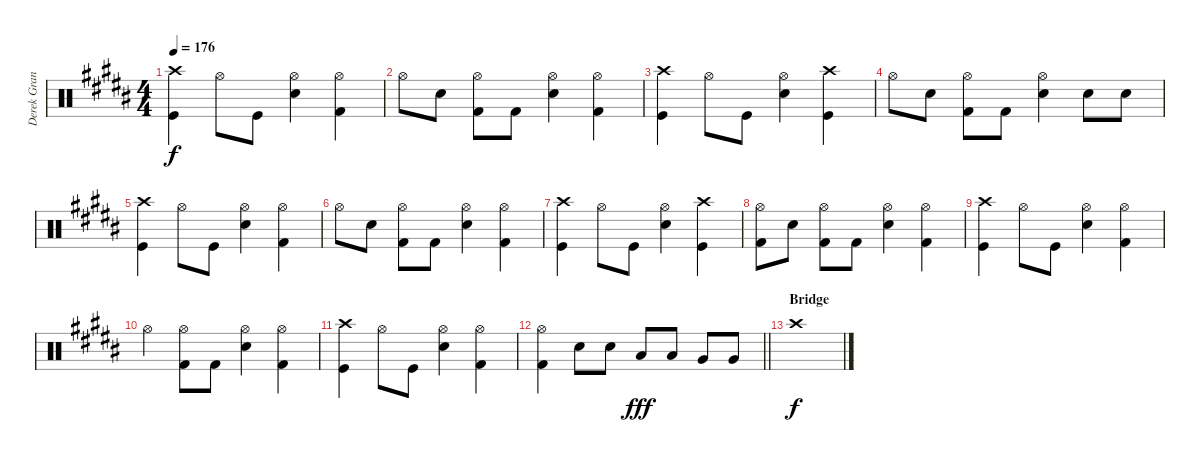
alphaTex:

\track ("Derek Grant - Drums" "Derek Gran") {instrument percussion}
\staff {score}
\articulation defaults
\ts (4 4)
\tempo 176
\clef neutral
\ks b
("Kick (hit)" "Crash high (hit)").4{dy f} "Hi-Hat (open)".8 "Kick (hit)".8 ("Snare (hit) 2" "Hi-Hat (open)").4 ("Kick (hit) 2" "Hi-Hat (open)").4 |
"Hi-Hat (open)".8 "Snare (hit) 2".8 ("Kick (hit) 2" "Hi-Hat (open)").8 "Kick (hit) 2".8 ("Snare (hit) 2" "Hi-Hat (open)").4 ("Kick (hit) 2" "Hi-Hat (open)").4 |
("Kick (hit)" "Crash high (hit)").4 "Hi-Hat (open)".8 "Kick (hit)".8 ("Snare (hit) 2" "Hi-Hat (open)").4 ("Kick (hit)" "Crash high (hit)").4 |
"Hi-Hat (open)".8 "Snare (hit) 2".8 ("Kick (hit) 2" "Hi-Hat (open)").8 "Kick (hit) 2".8 ("Snare (hit) 2" "Hi-Hat (open)").4 "Snare (hit) 2".8 "Snare (hit) 2".8 |
("Kick (hit)" "Crash high (hit)").4 "Hi-Hat (open)".8 "Kick (hit)".8 ("Snare (hit) 2" "Hi-Hat (open)").4 ("Kick (hit) 2" "Hi-Hat (open)").4 |
"Hi-Hat (open)".8 "Snare (hit) 2".8 ("Kick (hit) 2" "Hi-Hat (open)").8 "Kick (hit) 2".8 ("Snare (hit) 2" "Hi-Hat (open)").4 ("Kick (hit) 2" "Hi-Hat (open)").4 |
("Kick (hit)" "Crash high (hit)").4 "Hi-Hat (open)".8 "Kick (hit)".8 ("Snare (hit) 2" "Hi-Hat (open)").4 ("Kick (hit)" "Crash high (hit)").4 |
("Kick (hit) 2" "Hi-Hat (open)").8 "Snare (hit) 2".8 ("Kick (hit) 2" "Hi-Hat (open)").8 "Kick (hit) 2".8 ("Snare (hit) 2" "Hi-Hat (open)").4 ("Kick (hit) 2" "Hi-Hat (open)").4 |
("Kick (hit)" "Crash high (hit)").4 "Hi-Hat (open)".8 "Kick (hit)".8 ("Snare (hit) 2" "Hi-Hat (open)").4 ("Kick (hit) 2" "Hi-Hat (open)").4 |
"Hi-Hat (open)".4 ("Kick (hit) 2" "Hi-Hat (open)").8 "Kick (hit) 2".8 ("Snare (hit) 2" "Hi-Hat (open)").4 ("Kick (hit) 2" "Hi-Hat (open)").4 |
("Kick (hit)" "Crash high (hit)").4 "Hi-Hat (open)".8 "Kick (hit)".8 ("Snare (hit) 2" "Hi-Hat (open)").4 ("Kick (hit) 2" "Hi-Hat (open)").4 |
\barLineRight lightlight
("Kick (hit) 2" "Hi-Hat (open)").4 "Snare (hit) 2".8 "Snare (hit) 2".8 "Low Tom (hit)".8{dy fff} "Low Tom (hit)".8 "Very Low Tom (hit)".8 "Very Low Tom (hit)".8 |
\section ("" "Bridge")
"Crash high (hit)".1{dy f}
